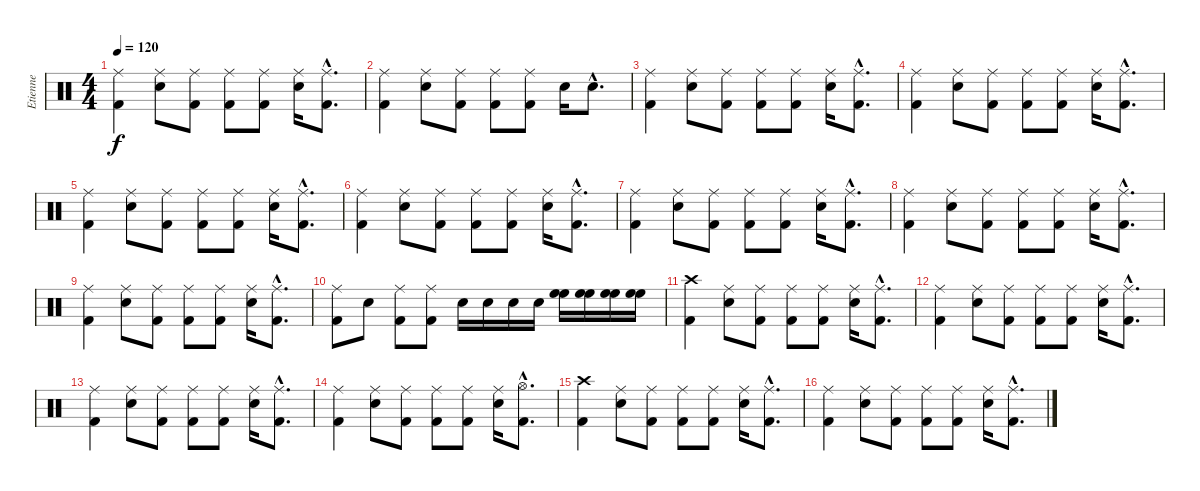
\track ("Etienne" "Etienne") {instrument percussion}
\staff {score}
\articulation defaults
\ts (4 4)
\tempo 120
\clef neutral
\ks c
("Ride (middle)" "Kick (hit) 2").4{dy f} ("Ride (middle)" "Snare (hit) 2").8 ("Ride (middle)" "Kick (hit) 2").8 ("Ride (middle)" "Kick (hit) 2").8 ("Ride (middle)" "Kick (hit) 2").8 ("Ride (middle)" "Snare (hit) 2").16 ("Ride (middle)"{hac} "Kick (hit) 2"{hac}).8{d} |
("Ride (middle)" "Kick (hit) 2").4 ("Ride (middle)" "Snare (hit) 2").8 ("Ride (middle)" "Kick (hit) 2").8 ("Ride (middle)" "Kick (hit) 2").8 ("Ride (middle)" "Kick (hit) 2").8 "Snare (hit) 2".16 "Snare (hit) 2"{hac}.8{d} |
("Ride (middle)" "Kick (hit) 2").4 ("Ride (middle)" "Snare (hit) 2").8 ("Ride (middle)" "Kick (hit) 2").8 ("Ride (middle)" "Kick (hit) 2").8 ("Ride (middle)" "Kick (hit) 2").8 ("Ride (middle)" "Snare (hit) 2").16 ("Ride (middle)"{hac} "Kick (hit) 2"{hac}).8{d} |
("Ride (middle)" "Kick (hit) 2").4 ("Ride (middle)" "Snare (hit) 2").8 ("Ride (middle)" "Kick (hit) 2").8 ("Ride (middle)" "Kick (hit) 2").8 ("Ride (middle)" "Kick (hit) 2").8 ("Ride (middle)" "Snare (hit) 2").16 ("Ride (middle)"{hac} "Kick (hit) 2"{hac}).8{d} |
("Ride (middle)" "Kick (hit) 2").4 ("Ride (middle)" "Snare (hit) 2").8 ("Ride (middle)" "Kick (hit) 2").8 ("Ride (middle)" "Kick (hit) 2").8 ("Ride (middle)" "Kick (hit) 2").8 ("Ride (middle)" "Snare (hit) 2").16 ("Ride (middle)"{hac} "Kick (hit) 2"{hac}).8{d} |
("Ride (middle)" "Kick (hit) 2").4 ("Ride (middle)" "Snare (hit) 2").8 ("Ride (middle)" "Kick (hit) 2").8 ("Ride (middle)" "Kick (hit) 2").8 ("Ride (middle)" "Kick (hit) 2").8 ("Ride (middle)" "Snare (hit) 2").16 ("Ride (middle)"{hac} "Kick (hit) 2"{hac}).8{d} |
("Ride (middle)" "Kick (hit) 2").4 ("Ride (middle)" "Snare (hit) 2").8 ("Ride (middle)" "Kick (hit) 2").8 ("Ride (middle)" "Kick (hit) 2").8 ("Ride (middle)" "Kick (hit) 2").8 ("Ride (middle)" "Snare (hit) 2").16 ("Ride (middle)"{hac} "Kick (hit) 2"{hac}).8{d} |
("Ride (middle)" "Kick (hit) 2").4 ("Ride (middle)" "Snare (hit) 2").8 ("Ride (middle)" "Kick (hit) 2").8 ("Ride (middle)" "Kick (hit) 2").8 ("Ride (middle)" "Kick (hit) 2").8 ("Ride (middle)" "Snare (hit) 2").16 ("Ride (middle)"{hac} "Kick (hit) 2"{hac}).8{d} |
("Ride (middle)" "Kick (hit) 2").4 ("Ride (middle)" "Snare (hit) 2").8 ("Ride (middle)" "Kick (hit) 2").8 ("Ride (middle)" "Kick (hit) 2").8 ("Ride (middle)" "Kick (hit) 2").8 ("Ride (middle)" "Snare (hit) 2").16 ("Ride (middle)"{hac} "Kick (hit) 2"{hac}).8{d} |
("Ride (middle)" "Kick (hit) 2").8 "Snare (hit) 2".8 ("Ride (middle)" "Kick (hit) 2").8 ("Ride (middle)" "Kick (hit) 2").8 "Snare (hit) 2".16 "Snare (hit) 2".16 "Snare (hit) 2".16 "Snare (hit) 2".16 ("High Floor Tom (hit)" "High Floor Tom (hit)").16 ("High Floor Tom (hit)" "High Floor Tom (hit)").16 ("High Floor Tom (hit)" "High Floor Tom (hit)").16 ("High Floor Tom (hit)" "High Floor Tom (hit)").16 |
("Crash high (hit)" "Kick (hit) 2").4 ("Ride (middle)" "Snare (hit) 2").8 ("Ride (middle)" "Kick (hit) 2").8 ("Ride (middle)" "Kick (hit) 2").8 ("Ride (middle)" "Kick (hit) 2").8 ("Ride (middle)" "Snare (hit) 2").16 ("Ride (middle)"{hac} "Kick (hit) 2"{hac}).8{d} |
("Ride (middle)" "Kick (hit) 2").4 ("Ride (middle)" "Snare (hit) 2").8 ("Ride (middle)" "Kick (hit) 2").8 ("Ride (middle)" "Kick (hit) 2").8 ("Ride (middle)" "Kick (hit) 2").8 ("Ride (middle)" "Snare (hit) 2").16 ("Ride (middle)"{hac} "Kick (hit) 2"{hac}).8{d} |
("Ride (middle)" "Kick (hit) 2").4 ("Ride (middle)" "Snare (hit) 2").8 ("Ride (middle)" "Kick (hit) 2").8 ("Ride (middle)" "Kick (hit) 2").8 ("Ride (middle)" "Kick (hit) 2").8 ("Ride (middle)" "Snare (hit) 2").16 ("Ride (middle)"{hac} "Kick (hit) 2"{hac}).8{d} |
("Ride (middle)" "Kick (hit) 2").4 ("Ride (middle)" "Snare (hit) 2").8 ("Ride (middle)" "Kick (hit) 2").8 ("Ride (middle)" "Kick (hit) 2").8 ("Ride (middle)" "Kick (hit) 2").8 ("Ride (middle)" "Snare (hit) 2").16 ("Hi-Hat (open)"{hac} "Kick (hit) 2"{hac}).8{d} |
("Crash high (hit)" "Kick (hit) 2").4 ("Ride (middle)" "Snare (hit) 2").8 ("Ride (middle)" "Kick (hit) 2").8 ("Ride (middle)" "Kick (hit) 2").8 ("Ride (middle)" "Kick (hit) 2").8 ("Ride (middle)" "Snare (hit) 2").16 ("Ride (middle)"{hac} "Kick (hit) 2"{hac}).8{d} |
("Ride (middle)" "Kick (hit) 2").4 ("Ride (middle)" "Snare (hit) 2").8 ("Ride (middle)" "Kick (hit) 2").8 ("Ride (middle)" "Kick (hit) 2").8 ("Ride (middle)" "Kick (hit) 2").8 ("Ride (middle)" "Snare (hit) 2").16 ("Ride (middle)"{hac} "Kick (hit) 2"{hac}).8{d}
